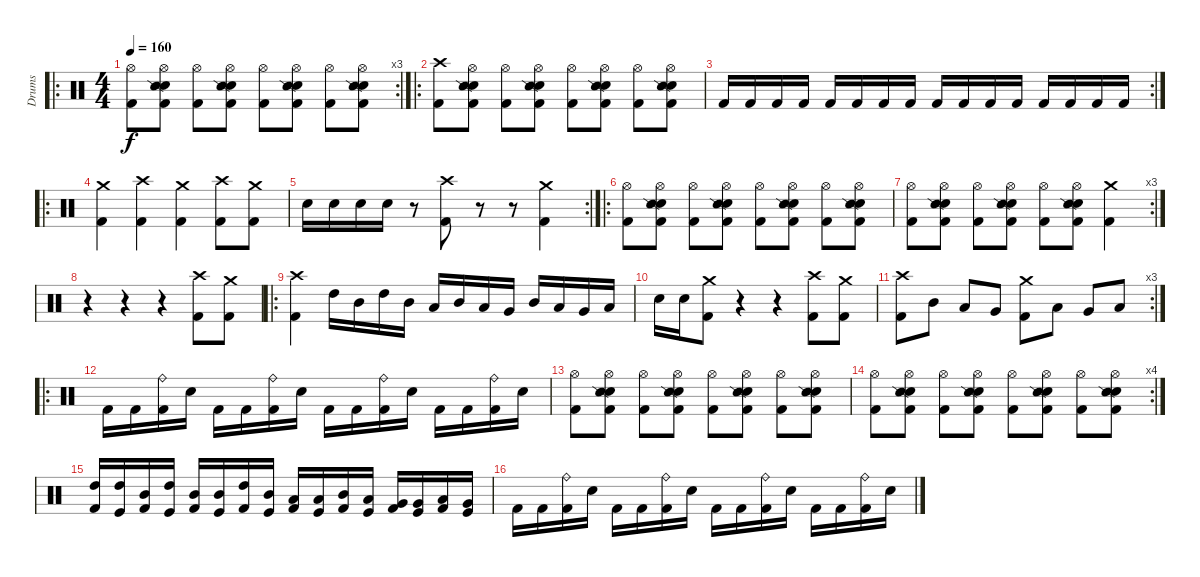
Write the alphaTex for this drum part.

\track ("Drums" "Drums") {instrument percussion}
\staff {score}
\articulation defaults
\ro
\rc 3
\ts (4 4)
\tempo 160
\clef neutral
\ks c
("Hi-Hat (open)" "Kick (hit) 2").8{dy f} ("Hi-Hat (open)" "Electric Snare (hit)" "Snare (side stick) 2" "Kick (hit) 2").8 ("Hi-Hat (open)" "Kick (hit) 2").8 ("Hi-Hat (open)" "Electric Snare (hit)" "Snare (side stick) 2" "Kick (hit) 2").8 ("Hi-Hat (open)" "Kick (hit) 2").8 ("Hi-Hat (open)" "Electric Snare (hit)" "Snare (side stick) 2" "Kick (hit) 2").8 ("Hi-Hat (open)" "Kick (hit) 2").8 ("Hi-Hat (open)" "Electric Snare (hit)" "Snare (side stick) 2" "Kick (hit) 2").8 |
\ro
("Crash high (hit)" "Kick (hit) 2").8 ("Hi-Hat (open)" "Electric Snare (hit)" "Snare (side stick) 2" "Kick (hit) 2").8 ("Hi-Hat (open)" "Kick (hit) 2").8 ("Hi-Hat (open)" "Electric Snare (hit)" "Snare (side stick) 2" "Kick (hit) 2").8 ("Hi-Hat (open)" "Kick (hit) 2").8 ("Hi-Hat (open)" "Electric Snare (hit)" "Snare (side stick) 2" "Kick (hit) 2").8 ("Hi-Hat (open)" "Kick (hit) 2").8 ("Hi-Hat (open)" "Electric Snare (hit)" "Snare (side stick) 2" "Kick (hit) 2").8 |
\rc 2 "Kick (hit) 2".16 "Kick (hit) 2".16 "Kick (hit) 2".16 "Kick (hit) 2".16 "Kick (hit) 2".16 "Kick (hit) 2".16 "Kick (hit) 2".16 "Kick (hit) 2".16 "Kick (hit) 2".16 "Kick (hit) 2".16 "Kick (hit) 2".16 "Kick (hit) 2".16 "Kick (hit) 2".16 "Kick (hit) 2".16 "Kick (hit) 2".16 "Kick (hit) 2".16
|
\ro
("Crash medium (hit)" "Kick (hit) 2").4 ("Crash high (hit)" "Kick (hit) 2").4 ("Crash medium (hit)" "Kick (hit) 2").4 ("Crash high (hit)" "Kick (hit) 2").8 ("Crash medium (hit)" "Kick (hit) 2").8 |
\rc 2 "Electric Snare (hit)".16 "Electric Snare (hit)".16 "Electric Snare (hit)".16 "Electric Snare (hit)".16
r.8 ("Crash high (hit)" "Kick (hit) 2").8 r.8 r.8 ("Crash medium (hit)" "Kick (hit) 2").4 |
\ro
("Hi-Hat (open)" "Kick (hit) 2").8 ("Hi-Hat (open)" "Electric Snare (hit)" "Snare (side stick) 2" "Kick (hit) 2").8 ("Hi-Hat (open)" "Kick (hit) 2").8 ("Hi-Hat (open)" "Electric Snare (hit)" "Snare (side stick) 2" "Kick (hit) 2").8 ("Hi-Hat (open)" "Kick (hit) 2").8 ("Hi-Hat (open)" "Electric Snare (hit)" "Snare (side stick) 2" "Kick (hit) 2").8 ("Hi-Hat (open)" "Kick (hit) 2").8 ("Hi-Hat (open)" "Electric Snare (hit)" "Snare (side stick) 2" "Kick (hit) 2").8 |
\rc 3
("Hi-Hat (open)" "Kick (hit) 2").8 ("Hi-Hat (open)" "Electric Snare (hit)" "Snare (side stick) 2" "Kick (hit) 2").8 ("Hi-Hat (open)" "Kick (hit) 2").8 ("Hi-Hat (open)" "Electric Snare (hit)" "Snare (side stick) 2" "Kick (hit) 2").8 ("Hi-Hat (open)" "Kick (hit) 2").8 ("Hi-Hat (open)" "Electric Snare (hit)" "Snare (side stick) 2" "Kick (hit) 2").8 ("Crash medium (hit)" "Kick (hit) 2").4 |
r.4 r.4 r.4 ("Crash high (hit)" "Kick (hit) 2").8 ("Crash medium (hit)" "Kick (hit) 2").8 |
\ro
("Crash high (hit)" "Kick (hit) 2").4 "High Tom (hit)".16 "Mid Tom (hit)".16 "High Tom (hit)".16 "Mid Tom (hit)".16 "Low Tom (hit)".16 "Mid Tom (hit)".16 "Low Tom (hit)".16 "Very Low Tom (hit)".16 "Mid Tom (hit)".16 "Low Tom (hit)".16 "Very Low Tom (hit)".16 "Low Floor Tom (hit)".16 |
"Electric Snare (hit)".16 "Electric Snare (hit)".16 ("Crash medium (hit)" "Kick (hit) 2").8 r.4 r.4 ("Crash high (hit)" "Kick (hit) 2").8 ("Crash medium (hit)" "Kick (hit) 2").8 |
\rc 3
("Crash high (hit)" "Kick (hit) 2").8 "Mid Tom (hit)".8 "Low Tom (hit)".8 "Very Low Tom (hit)".8 ("Crash medium (hit)" "Kick (hit) 2").8 "Low Tom (hit)".8 "Very Low Tom (hit)".8 "Low Floor Tom (hit)".8 |
\ro "Kick (hit) 2".16 "Kick (hit) 2".16
("Ride (bell)" "Kick (hit) 2").16 "Electric Snare (hit)".16 "Kick (hit) 2".16 "Kick (hit) 2".16 ("Ride (bell)" "Kick (hit) 2").16 "Electric Snare (hit)".16 "Kick (hit) 2".16 "Kick (hit) 2".16 ("Ride (bell)" "Kick (hit) 2").16 "Electric Snare (hit)".16 "Kick (hit) 2".16 "Kick (hit) 2".16 ("Ride (bell)" "Kick (hit) 2").16 "Electric Snare (hit)".16 |
("Hi-Hat (open)" "Kick (hit) 2").8 ("Hi-Hat (open)" "Electric Snare (hit)" "Snare (side stick) 2" "Kick (hit) 2").8 ("Hi-Hat (open)" "Kick (hit) 2").8 ("Hi-Hat (open)" "Electric Snare (hit)" "Snare (side stick) 2" "Kick (hit) 2").8 ("Hi-Hat (open)" "Kick (hit) 2").8 ("Hi-Hat (open)" "Electric Snare (hit)" "Snare (side stick) 2" "Kick (hit) 2").8 ("Hi-Hat (open)" "Kick (hit) 2").8 ("Hi-Hat (open)" "Electric Snare (hit)" "Snare (side stick) 2" "Kick (hit) 2").8 |
\rc 4
("Hi-Hat (open)" "Kick (hit) 2").8 ("Hi-Hat (open)" "Electric Snare (hit)" "Snare (side stick) 2" "Kick (hit) 2").8 ("Hi-Hat (open)" "Kick (hit) 2").8 ("Hi-Hat (open)" "Electric Snare (hit)" "Snare (side stick) 2" "Kick (hit) 2").8 ("Hi-Hat (open)" "Kick (hit) 2").8 ("Hi-Hat (open)" "Electric Snare (hit)" "Snare (side stick) 2" "Kick (hit) 2").8 ("Hi-Hat (open)" "Kick (hit) 2").8 ("Hi-Hat (open)" "Electric Snare (hit)" "Snare (side stick) 2" "Kick (hit) 2").8 |
("High Tom (hit)" "Kick (hit) 2").16 ("High Tom (hit)" "Kick (hit)").16 ("Mid Tom (hit)" "Kick (hit) 2").16 ("High Tom (hit)" "Kick (hit)").16 ("Mid Tom (hit)" "Kick (hit) 2").16 ("Mid Tom (hit)" "Kick (hit)").16 ("High Tom (hit)" "Kick (hit) 2").16 ("Mid Tom (hit)" "Kick (hit)").16 ("Low Tom (hit)" "Kick (hit) 2").16 ("Low Tom (hit)" "Kick (hit)").16 ("Mid Tom (hit)" "Kick (hit) 2").16 ("Low Tom (hit)" "Kick (hit)").16 ("Very Low Tom (hit)" "Kick (hit) 2").16 ("Very Low Tom (hit)" "Kick (hit)").16 ("Low Tom (hit)" "Kick (hit) 2").16 ("Very Low Tom (hit)" "Kick (hit)").16 |
"Kick (hit) 2".16 "Kick (hit) 2".16 ("Ride (bell)" "Kick (hit) 2").16 "Electric Snare (hit)".16 "Kick (hit) 2".16 "Kick (hit) 2".16 ("Ride (bell)" "Kick (hit) 2").16 "Electric Snare (hit)".16 "Kick (hit) 2".16 "Kick (hit) 2".16 ("Ride (bell)" "Kick (hit) 2").16 "Electric Snare (hit)".16 "Kick (hit) 2".16 "Kick (hit) 2".16 ("Ride (bell)" "Kick (hit) 2").16 "Electric Snare (hit)".16
